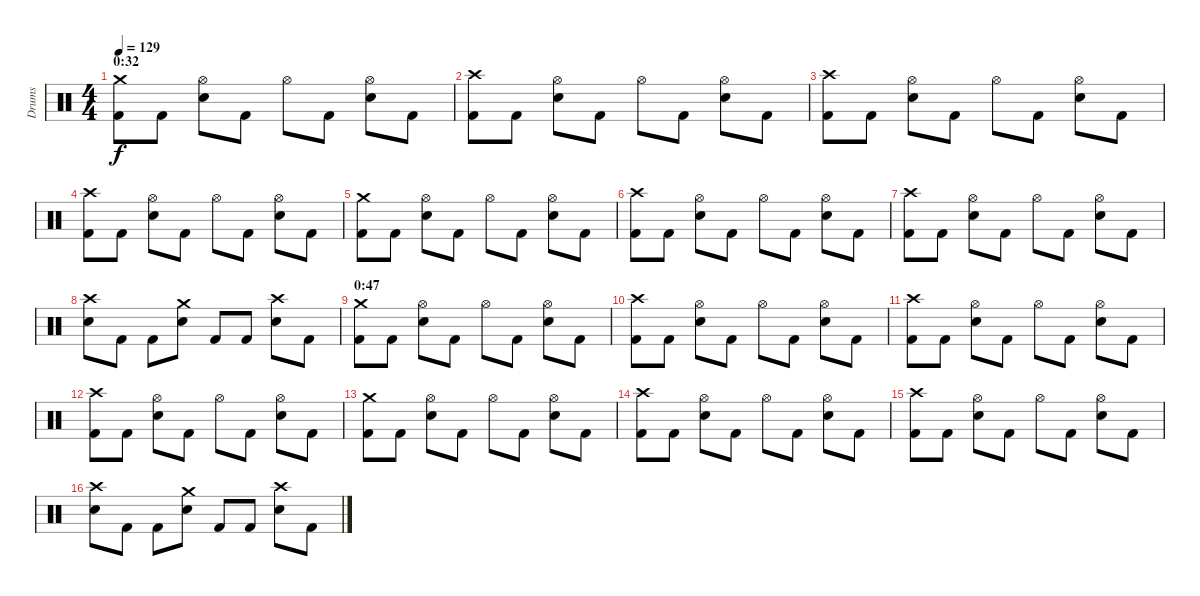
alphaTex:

\track ("Drums" "Drums") {instrument percussion}
\staff {score}
\articulation defaults
\ts (4 4)
\section ("" "0:32")
\tempo 129
\clef neutral
\ks c
("Crash medium (hit)" "Kick (hit) 2").8{dy f} "Kick (hit) 2".8 ("Hi-Hat (open)" "Snare (hit) 2").8 "Kick (hit) 2".8 "Hi-Hat (open)".8 "Kick (hit) 2".8 ("Hi-Hat (open)" "Snare (hit) 2").8 "Kick (hit) 2".8 |
("Crash high (hit)" "Kick (hit) 2").8 "Kick (hit) 2".8 ("Hi-Hat (open)" "Snare (hit) 2").8 "Kick (hit) 2".8 "Hi-Hat (open)".8 "Kick (hit) 2".8 ("Hi-Hat (open)" "Snare (hit) 2").8 "Kick (hit) 2".8 |
("Crash high (hit)" "Kick (hit) 2").8 "Kick (hit) 2".8 ("Hi-Hat (open)" "Snare (hit) 2").8 "Kick (hit) 2".8 "Hi-Hat (open)".8 "Kick (hit) 2".8 ("Hi-Hat (open)" "Snare (hit) 2").8 "Kick (hit) 2".8 |
("Crash high (hit)" "Kick (hit) 2").8 "Kick (hit) 2".8 ("Hi-Hat (open)" "Snare (hit) 2").8 "Kick (hit) 2".8 "Hi-Hat (open)".8 "Kick (hit) 2".8 ("Hi-Hat (open)" "Snare (hit) 2").8 "Kick (hit) 2".8 |
("Crash medium (hit)" "Kick (hit) 2").8 "Kick (hit) 2".8 ("Hi-Hat (open)" "Snare (hit) 2").8 "Kick (hit) 2".8 "Hi-Hat (open)".8 "Kick (hit) 2".8 ("Hi-Hat (open)" "Snare (hit) 2").8 "Kick (hit) 2".8 |
("Crash high (hit)" "Kick (hit) 2").8 "Kick (hit) 2".8 ("Hi-Hat (open)" "Snare (hit) 2").8 "Kick (hit) 2".8 "Hi-Hat (open)".8 "Kick (hit) 2".8 ("Hi-Hat (open)" "Snare (hit) 2").8 "Kick (hit) 2".8 |
("Crash high (hit)" "Kick (hit) 2").8 "Kick (hit) 2".8 ("Hi-Hat (open)" "Snare (hit) 2").8 "Kick (hit) 2".8 "Hi-Hat (open)".8 "Kick (hit) 2".8 ("Hi-Hat (open)" "Snare (hit) 2").8 "Kick (hit) 2".8 |
("Crash high (hit)" "Snare (hit) 2").8 "Kick (hit) 2".8 "Kick (hit) 2".8 ("Crash medium (hit)" "Snare (hit) 2").8 "Kick (hit) 2".8 "Kick (hit) 2".8 ("Crash high (hit)" "Snare (hit) 2").8 "Kick (hit) 2".8 |
\section ("" "0:47")
("Crash medium (hit)" "Kick (hit) 2").8 "Kick (hit) 2".8 ("Hi-Hat (open)" "Snare (hit) 2").8 "Kick (hit) 2".8 "Hi-Hat (open)".8 "Kick (hit) 2".8 ("Hi-Hat (open)" "Snare (hit) 2").8 "Kick (hit) 2".8 |
("Crash high (hit)" "Kick (hit) 2").8 "Kick (hit) 2".8 ("Hi-Hat (open)" "Snare (hit) 2").8 "Kick (hit) 2".8 "Hi-Hat (open)".8 "Kick (hit) 2".8 ("Hi-Hat (open)" "Snare (hit) 2").8 "Kick (hit) 2".8 |
("Crash high (hit)" "Kick (hit) 2").8 "Kick (hit) 2".8 ("Hi-Hat (open)" "Snare (hit) 2").8 "Kick (hit) 2".8 "Hi-Hat (open)".8 "Kick (hit) 2".8 ("Hi-Hat (open)" "Snare (hit) 2").8 "Kick (hit) 2".8 |
("Crash high (hit)" "Kick (hit) 2").8 "Kick (hit) 2".8 ("Hi-Hat (open)" "Snare (hit) 2").8 "Kick (hit) 2".8 "Hi-Hat (open)".8 "Kick (hit) 2".8 ("Hi-Hat (open)" "Snare (hit) 2").8 "Kick (hit) 2".8 |
("Crash medium (hit)" "Kick (hit) 2").8 "Kick (hit) 2".8 ("Hi-Hat (open)" "Snare (hit) 2").8 "Kick (hit) 2".8 "Hi-Hat (open)".8 "Kick (hit) 2".8 ("Hi-Hat (open)" "Snare (hit) 2").8 "Kick (hit) 2".8 |
("Crash high (hit)" "Kick (hit) 2").8 "Kick (hit) 2".8 ("Hi-Hat (open)" "Snare (hit) 2").8 "Kick (hit) 2".8 "Hi-Hat (open)".8 "Kick (hit) 2".8 ("Hi-Hat (open)" "Snare (hit) 2").8 "Kick (hit) 2".8 |
("Crash high (hit)" "Kick (hit) 2").8 "Kick (hit) 2".8 ("Hi-Hat (open)" "Snare (hit) 2").8 "Kick (hit) 2".8 "Hi-Hat (open)".8 "Kick (hit) 2".8 ("Hi-Hat (open)" "Snare (hit) 2").8 "Kick (hit) 2".8 |
("Crash high (hit)" "Snare (hit) 2").8 "Kick (hit) 2".8 "Kick (hit) 2".8 ("Crash medium (hit)" "Snare (hit) 2").8 "Kick (hit) 2".8 "Kick (hit) 2".8 ("Crash high (hit)" "Snare (hit) 2").8 "Kick (hit) 2".8
